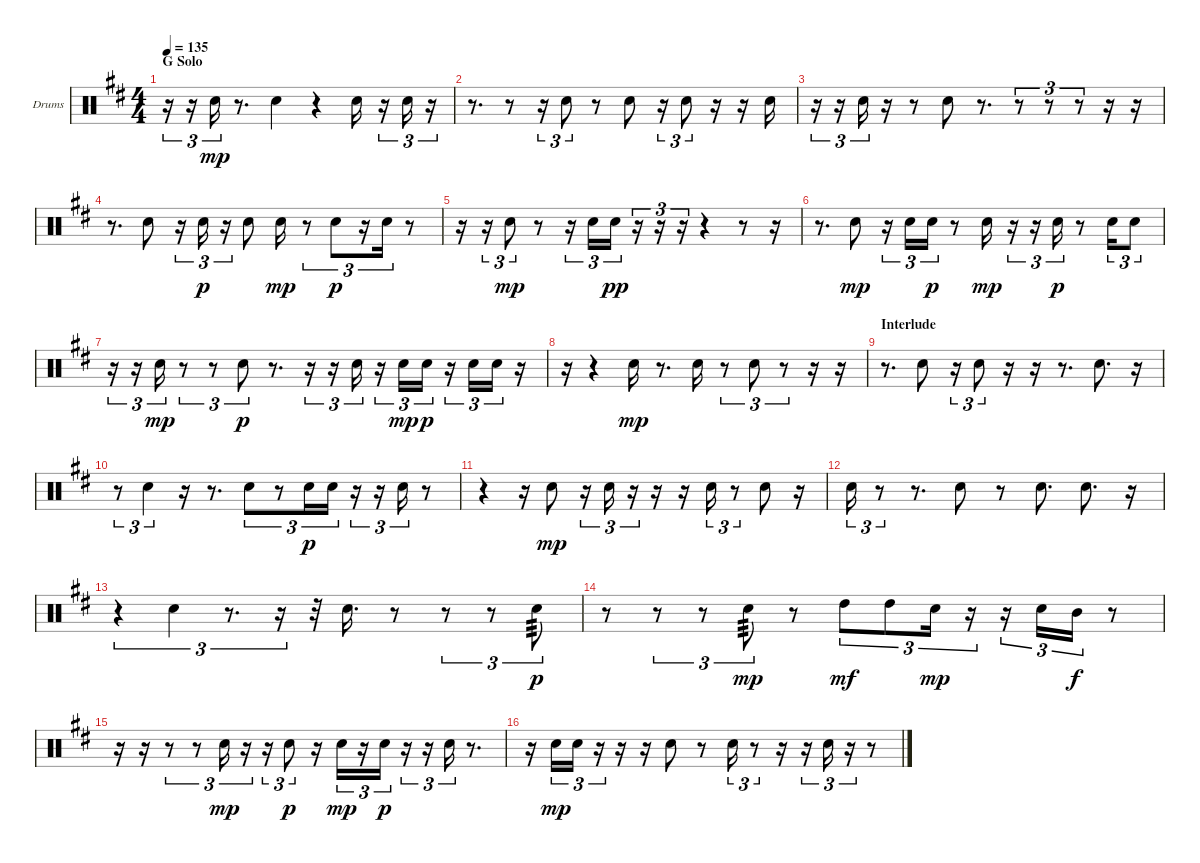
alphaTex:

\bracketExtendMode groupsimilarinstruments
\firstSystemTrackNameOrientation horizontal
\otherSystemsTrackNameOrientation horizontal
\track ("Snare" "Drums") {instrument percussion}
\staff {score}
\articulation defaults
\ts (4 4)
\section ("" "G Solo")
\tempo 135
\clef neutral
\ks d
r.16{tu (3 2) dy mp} r.16{tu (3 2)} "Snare (hit) 2".16{tu (3 2)} r.8{d} "Snare (hit) 2".4 r.4 "Snare (hit) 2".16 r.16{tu (3 2)} "Snare (hit) 2".16{tu (3 2)} r.16{tu (3 2)} |
r.8{d} r.8 r.16{tu (3 2)} "Snare (hit) 2".8{tu (3 2)} r.8 "Snare (hit) 2".8 r.16{tu (3 2)} "Snare (hit) 2".8{tu (3 2)} r.16 r.16 "Snare (hit) 2".16 |
r.16{tu (3 2)} r.16{tu (3 2)} "Snare (hit) 2".16{tu (3 2)} r.16 r.8 "Snare (hit) 2".8 r.8{d} r.8{tu (3 2)} r.8{tu (3 2)} r.8{tu (3 2)} r.16 r.16 |
r.8{d} "Snare (hit) 2".8 r.16{tu (3 2)} "Snare (hit) 2".16{tu (3 2) dy p} r.16{tu (3 2)} "Snare (hit) 2".8 "Snare (hit) 2".16{dy mp} r.8{tu (3 2)} "Snare (hit) 2".8{tu (3 2) dy p} r.16{tu (3 2)} "Snare (hit) 2".16{tu (3 2)} r.8 |
r.16 r.16{tu (3 2)} "Snare (hit) 2".8{tu (3 2) dy mp} r.8 r.16{tu (3 2)} "Snare (hit) 2".16{tu (3 2)} "Snare (hit) 2".16{tu (3 2) dy pp} r.16{tu (3 2)} r.16{tu (3 2)} r.16{tu (3 2)} r.4 r.8 r.16 |
r.8{d} "Snare (hit) 2".8{dy mp} r.16{tu (3 2)} "Snare (hit) 2".16{tu (3 2)} "Snare (hit) 2".16{tu (3 2) dy p} r.8 "Snare (hit) 2".16{dy mp} r.16{tu (3 2)} r.16{tu (3 2)} "Snare (hit) 2".16{tu (3 2) dy p} r.8 "Snare (hit) 2".16{tu (3 2)} "Snare (hit) 2".8{tu (3 2)} |
r.16{tu (3 2)} r.16{tu (3 2)} "Snare (hit) 2".16{tu (3 2) dy mp} r.8{tu (3 2)} r.8{tu (3 2)} "Snare (hit) 2".8{tu (3 2) dy p} r.8{d} r.16{tu (3 2)} r.16{tu (3 2)} "Snare (hit) 2".16{tu (3 2)} r.16{tu (3 2)} "Snare (hit) 2".16{tu (3 2) dy mp} "Snare (hit) 2".16{tu (3 2) dy p} r.16{tu (3 2)} "Snare (hit) 2".16{tu (3 2)} "Snare (hit) 2".16{tu (3 2)} r.16 |
r.16 r.4 "Snare (hit) 2".16{dy mp} r.8{d} "Snare (hit) 2".16 r.8{tu (3 2)} "Snare (hit) 2".8{tu (3 2)} r.8{tu (3 2)} r.16 r.16 |
\section ("" "Interlude")
r.8{d} "Snare (hit) 2".8 r.16{tu (3 2)} "Snare (hit) 2".8{tu (3 2)} r.16 r.16 r.8{d} "Snare (hit) 2".8{d} r.16 |
r.8{tu (3 2)} "Snare (hit) 2".4{tu (3 2)} r.16 r.8{d} "Snare (hit) 2".8{tu (3 2)} r.8{tu (3 2)} "Snare (hit) 2".16{tu (3 2) dy p} "Snare (hit) 2".16{tu (3 2)} r.16{tu (3 2)} r.16{tu (3 2)} "Snare (hit) 2".16{tu (3 2)} r.8 |
r.4 r.16 "Snare (hit) 2".8{dy mp} r.16{tu (3 2)} "Snare (hit) 2".16{tu (3 2)} r.16{tu (3 2)} r.16 r.16 "Snare (hit) 2".16{tu (3 2)} r.8{tu (3 2)} "Snare (hit) 2".8 r.16 |
"Snare (hit) 2".16{tu (3 2)} r.8{tu (3 2)} r.8{d} "Snare (hit) 2".8 r.8 "Snare (hit) 2".8{d} "Snare (hit) 2".8{d} r.16 |
r.4{tu (3 2)} "Snare (hit) 2".4{tu (3 2)} r.8{d tu (3 2)} r.16{tu (3 2)} r.32 "Snare (hit) 2".16{d} r.8 r.8{tu (3 2)} r.8{tu (3 2)} "Snare (hit) 2".8{tu (3 2) tp 3 dy p} |
r.8 r.8{tu (3 2)} r.8{tu (3 2)} "Snare (hit) 2".8{tu (3 2) tp 3 dy mp} r.8 "High Tom (hit)".8{tu (3 2) dy mf} "High Tom (hit)".8{tu (3 2)} "Snare (hit) 2".16{tu (3 2) dy mp} r.16{tu (3 2)} r.16{tu (3 2)} "Snare (hit) 2".16{tu (3 2)} "Mid Tom (hit)".16{tu (3 2) dy f} r.8 |
r.16 r.16 r.8{tu (3 2)} r.8{tu (3 2)} "Snare (hit) 2".16{tu (3 2) dy mp} r.16{tu (3 2)} r.16{tu (3 2)} "Snare (hit) 2".8{tu (3 2) dy p} r.16 "Snare (hit) 2".16{tu (3 2) dy mp} r.16{tu (3 2)} "Snare (hit) 2".16{tu (3 2) dy p} r.16{tu (3 2)} r.16{tu (3 2)} "Snare (hit) 2".16{tu (3 2)} r.8{d} |
r.16 "Snare (hit) 2".16{tu (3 2) dy mp} "Snare (hit) 2".16{tu (3 2)} r.16{tu (3 2)} r.16 r.16 "Snare (hit) 2".8 r.8 "Snare (hit) 2".16{tu (3 2)} r.8{tu (3 2)} r.16 r.16{tu (3 2)} "Snare (hit) 2".16{tu (3 2)} r.16{tu (3 2)} r.8
